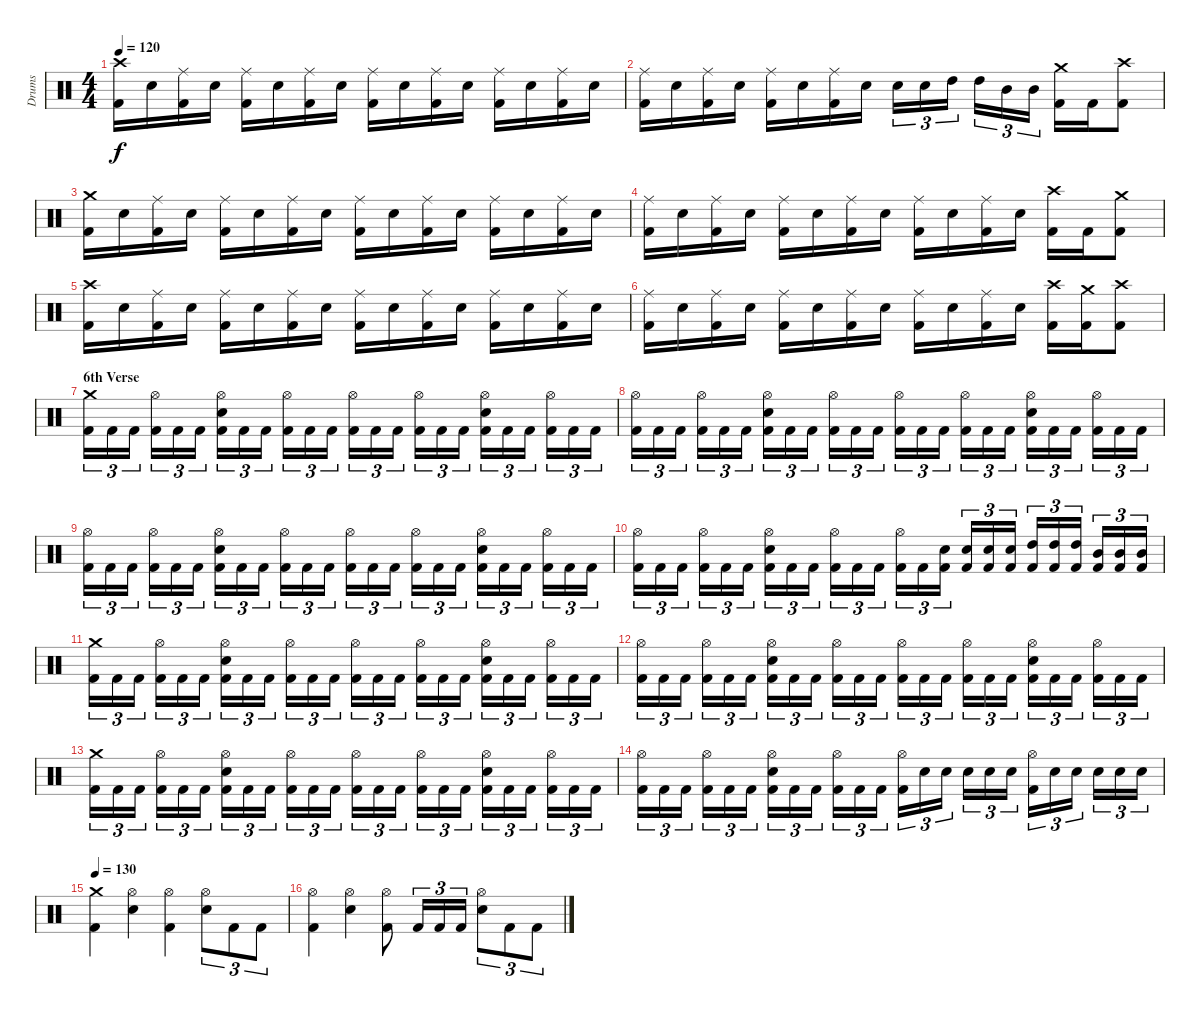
\track ("Drums" "Drums") {instrument percussion}
\staff {score}
\articulation defaults
\ts (4 4)
\tempo 120
\clef neutral
\ks c
("Kick (hit) 2" "Crash high (hit)").16{dy f} "Electric Snare (hit)".16 ("Kick (hit) 2" "Ride (middle)").16 "Electric Snare (hit)".16 ("Kick (hit) 2" "Ride (middle)").16 "Electric Snare (hit)".16 ("Kick (hit) 2" "Ride (middle)").16 "Electric Snare (hit)".16 ("Kick (hit) 2" "Ride (middle)").16 "Electric Snare (hit)".16 ("Kick (hit) 2" "Ride (middle)").16 "Electric Snare (hit)".16 ("Kick (hit) 2" "Ride (middle)").16 "Electric Snare (hit)".16 ("Kick (hit) 2" "Ride (middle)").16 "Electric Snare (hit)".16 |
("Kick (hit) 2" "Ride (middle)").16 "Electric Snare (hit)".16 ("Kick (hit) 2" "Ride (middle)").16 "Electric Snare (hit)".16 ("Kick (hit) 2" "Ride (middle)").16 "Electric Snare (hit)".16 ("Kick (hit) 2" "Ride (middle)").16 "Electric Snare (hit)".16 "Electric Snare (hit)".16{tu (3 2)} "Electric Snare (hit)".16{tu (3 2)} "High Tom (hit)".16{tu (3 2)} "High Tom (hit)".16{tu (3 2)} "Mid Tom (hit)".16{tu (3 2)} "Mid Tom (hit)".16{tu (3 2)} ("Kick (hit) 2" "Crash medium (hit)").16 "Kick (hit) 2".16 ("Kick (hit) 2" "Crash high (hit)").8 |
("Kick (hit) 2" "Crash medium (hit)").16 "Electric Snare (hit)".16 ("Kick (hit) 2" "Ride (middle)").16 "Electric Snare (hit)".16 ("Kick (hit) 2" "Ride (middle)").16 "Electric Snare (hit)".16 ("Kick (hit) 2" "Ride (middle)").16 "Electric Snare (hit)".16 ("Kick (hit) 2" "Ride (middle)").16 "Electric Snare (hit)".16 ("Kick (hit) 2" "Ride (middle)").16 "Electric Snare (hit)".16 ("Kick (hit) 2" "Ride (middle)").16 "Electric Snare (hit)".16 ("Kick (hit) 2" "Ride (middle)").16 "Electric Snare (hit)".16 |
("Kick (hit) 2" "Ride (middle)").16 "Electric Snare (hit)".16 ("Kick (hit) 2" "Ride (middle)").16 "Electric Snare (hit)".16 ("Kick (hit) 2" "Ride (middle)").16 "Electric Snare (hit)".16 ("Kick (hit) 2" "Ride (middle)").16 "Electric Snare (hit)".16 ("Kick (hit) 2" "Ride (middle)").16 "Electric Snare (hit)".16 ("Kick (hit) 2" "Ride (middle)").16 "Electric Snare (hit)".16 ("Kick (hit) 2" "Crash high (hit)").16 "Kick (hit) 2".16 ("Kick (hit) 2" "Crash medium (hit)").8 |
("Kick (hit) 2" "Crash high (hit)").16 "Electric Snare (hit)".16 ("Kick (hit) 2" "Ride (middle)").16 "Electric Snare (hit)".16 ("Kick (hit) 2" "Ride (middle)").16 "Electric Snare (hit)".16 ("Kick (hit) 2" "Ride (middle)").16 "Electric Snare (hit)".16 ("Kick (hit) 2" "Ride (middle)").16 "Electric Snare (hit)".16 ("Kick (hit) 2" "Ride (middle)").16 "Electric Snare (hit)".16 ("Kick (hit) 2" "Ride (middle)").16 "Electric Snare (hit)".16 ("Kick (hit) 2" "Ride (middle)").16 "Electric Snare (hit)".16 |
("Kick (hit) 2" "Ride (middle)").16 "Electric Snare (hit)".16 ("Kick (hit) 2" "Ride (middle)").16 "Electric Snare (hit)".16 ("Kick (hit) 2" "Ride (middle)").16 "Electric Snare (hit)".16 ("Kick (hit) 2" "Ride (middle)").16 "Electric Snare (hit)".16 ("Kick (hit) 2" "Ride (middle)").16 "Electric Snare (hit)".16 ("Kick (hit) 2" "Ride (middle)").16 "Electric Snare (hit)".16 ("Kick (hit) 2" "Crash high (hit)").16 ("Kick (hit) 2" "Crash medium (hit)").16 ("Kick (hit) 2" "Crash high (hit)").8 |
\section ("" "6th Verse")
("Kick (hit) 2" "Crash medium (hit)").16{tu (3 2)} "Kick (hit) 2".16{tu (3 2)} "Kick (hit) 2".16{tu (3 2)} ("Kick (hit) 2" "Hi-Hat (open)").16{tu (3 2)} "Kick (hit) 2".16{tu (3 2)} "Kick (hit) 2".16{tu (3 2)} ("Kick (hit) 2" "Electric Snare (hit)" "Hi-Hat (open)").16{tu (3 2)} "Kick (hit) 2".16{tu (3 2)} "Kick (hit) 2".16{tu (3 2)} ("Kick (hit) 2" "Hi-Hat (open)").16{tu (3 2)} "Kick (hit) 2".16{tu (3 2)} "Kick (hit) 2".16{tu (3 2)} ("Kick (hit) 2" "Hi-Hat (open)").16{tu (3 2)} "Kick (hit) 2".16{tu (3 2)} "Kick (hit) 2".16{tu (3 2)} ("Kick (hit) 2" "Hi-Hat (open)").16{tu (3 2)} "Kick (hit) 2".16{tu (3 2)} "Kick (hit) 2".16{tu (3 2)} ("Kick (hit) 2" "Electric Snare (hit)" "Hi-Hat (open)").16{tu (3 2)} "Kick (hit) 2".16{tu (3 2)} "Kick (hit) 2".16{tu (3 2)} ("Kick (hit) 2" "Hi-Hat (open)").16{tu (3 2)} "Kick (hit) 2".16{tu (3 2)} "Kick (hit) 2".16{tu (3 2)} |
("Kick (hit) 2" "Hi-Hat (open)").16{tu (3 2)} "Kick (hit) 2".16{tu (3 2)} "Kick (hit) 2".16{tu (3 2)} ("Kick (hit) 2" "Hi-Hat (open)").16{tu (3 2)} "Kick (hit) 2".16{tu (3 2)} "Kick (hit) 2".16{tu (3 2)} ("Kick (hit) 2" "Electric Snare (hit)" "Hi-Hat (open)").16{tu (3 2)} "Kick (hit) 2".16{tu (3 2)} "Kick (hit) 2".16{tu (3 2)} ("Kick (hit) 2" "Hi-Hat (open)").16{tu (3 2)} "Kick (hit) 2".16{tu (3 2)} "Kick (hit) 2".16{tu (3 2)} ("Kick (hit) 2" "Hi-Hat (open)").16{tu (3 2)} "Kick (hit) 2".16{tu (3 2)} "Kick (hit) 2".16{tu (3 2)} ("Kick (hit) 2" "Hi-Hat (open)").16{tu (3 2)} "Kick (hit) 2".16{tu (3 2)} "Kick (hit) 2".16{tu (3 2)} ("Kick (hit) 2" "Electric Snare (hit)" "Hi-Hat (open)").16{tu (3 2)} "Kick (hit) 2".16{tu (3 2)} "Kick (hit) 2".16{tu (3 2)} ("Kick (hit) 2" "Hi-Hat (open)").16{tu (3 2)} "Kick (hit) 2".16{tu (3 2)} "Kick (hit) 2".16{tu (3 2)} |
("Kick (hit) 2" "Hi-Hat (open)").16{tu (3 2)} "Kick (hit) 2".16{tu (3 2)} "Kick (hit) 2".16{tu (3 2)} ("Kick (hit) 2" "Hi-Hat (open)").16{tu (3 2)} "Kick (hit) 2".16{tu (3 2)} "Kick (hit) 2".16{tu (3 2)} ("Kick (hit) 2" "Electric Snare (hit)" "Hi-Hat (open)").16{tu (3 2)} "Kick (hit) 2".16{tu (3 2)} "Kick (hit) 2".16{tu (3 2)} ("Kick (hit) 2" "Hi-Hat (open)").16{tu (3 2)} "Kick (hit) 2".16{tu (3 2)} "Kick (hit) 2".16{tu (3 2)} ("Kick (hit) 2" "Hi-Hat (open)").16{tu (3 2)} "Kick (hit) 2".16{tu (3 2)} "Kick (hit) 2".16{tu (3 2)} ("Kick (hit) 2" "Hi-Hat (open)").16{tu (3 2)} "Kick (hit) 2".16{tu (3 2)} "Kick (hit) 2".16{tu (3 2)} ("Kick (hit) 2" "Electric Snare (hit)" "Hi-Hat (open)").16{tu (3 2)} "Kick (hit) 2".16{tu (3 2)} "Kick (hit) 2".16{tu (3 2)} ("Kick (hit) 2" "Hi-Hat (open)").16{tu (3 2)} "Kick (hit) 2".16{tu (3 2)} "Kick (hit) 2".16{tu (3 2)} |
("Kick (hit) 2" "Hi-Hat (open)").16{tu (3 2)} "Kick (hit) 2".16{tu (3 2)} "Kick (hit) 2".16{tu (3 2)} ("Kick (hit) 2" "Hi-Hat (open)").16{tu (3 2)} "Kick (hit) 2".16{tu (3 2)} "Kick (hit) 2".16{tu (3 2)} ("Kick (hit) 2" "Electric Snare (hit)" "Hi-Hat (open)").16{tu (3 2)} "Kick (hit) 2".16{tu (3 2)} "Kick (hit) 2".16{tu (3 2)} ("Kick (hit) 2" "Hi-Hat (open)").16{tu (3 2)} "Kick (hit) 2".16{tu (3 2)} "Kick (hit) 2".16{tu (3 2)} ("Kick (hit) 2" "Hi-Hat (open)").16{tu (3 2)} "Kick (hit) 2".16{tu (3 2)} ("Kick (hit) 2" "Electric Snare (hit)").16{tu (3 2)} ("Kick (hit) 2" "Electric Snare (hit)").16{tu (3 2)} ("Kick (hit) 2" "Electric Snare (hit)").16{tu (3 2)} ("Kick (hit) 2" "Electric Snare (hit)").16{tu (3 2)} ("Kick (hit) 2" "High Tom (hit)").16{tu (3 2)} ("Kick (hit) 2" "High Tom (hit)").16{tu (3 2)} ("Kick (hit) 2" "High Tom (hit)").16{tu (3 2)} ("Kick (hit) 2" "Mid Tom (hit)").16{tu (3 2)} ("Kick (hit) 2" "Mid Tom (hit)").16{tu (3 2)} ("Kick (hit) 2" "Mid Tom (hit)").16{tu (3 2)} |
("Kick (hit) 2" "Crash medium (hit)").16{tu (3 2)} "Kick (hit) 2".16{tu (3 2)} "Kick (hit) 2".16{tu (3 2)} ("Kick (hit) 2" "Hi-Hat (open)").16{tu (3 2)} "Kick (hit) 2".16{tu (3 2)} "Kick (hit) 2".16{tu (3 2)} ("Kick (hit) 2" "Electric Snare (hit)" "Hi-Hat (open)").16{tu (3 2)} "Kick (hit) 2".16{tu (3 2)} "Kick (hit) 2".16{tu (3 2)} ("Kick (hit) 2" "Hi-Hat (open)").16{tu (3 2)} "Kick (hit) 2".16{tu (3 2)} "Kick (hit) 2".16{tu (3 2)} ("Kick (hit) 2" "Hi-Hat (open)").16{tu (3 2)} "Kick (hit) 2".16{tu (3 2)} "Kick (hit) 2".16{tu (3 2)} ("Kick (hit) 2" "Hi-Hat (open)").16{tu (3 2)} "Kick (hit) 2".16{tu (3 2)} "Kick (hit) 2".16{tu (3 2)} ("Kick (hit) 2" "Electric Snare (hit)" "Hi-Hat (open)").16{tu (3 2)} "Kick (hit) 2".16{tu (3 2)} "Kick (hit) 2".16{tu (3 2)} ("Kick (hit) 2" "Hi-Hat (open)").16{tu (3 2)} "Kick (hit) 2".16{tu (3 2)} "Kick (hit) 2".16{tu (3 2)} |
("Kick (hit) 2" "Hi-Hat (open)").16{tu (3 2)} "Kick (hit) 2".16{tu (3 2)} "Kick (hit) 2".16{tu (3 2)} ("Kick (hit) 2" "Hi-Hat (open)").16{tu (3 2)} "Kick (hit) 2".16{tu (3 2)} "Kick (hit) 2".16{tu (3 2)} ("Kick (hit) 2" "Electric Snare (hit)" "Hi-Hat (open)").16{tu (3 2)} "Kick (hit) 2".16{tu (3 2)} "Kick (hit) 2".16{tu (3 2)} ("Kick (hit) 2" "Hi-Hat (open)").16{tu (3 2)} "Kick (hit) 2".16{tu (3 2)} "Kick (hit) 2".16{tu (3 2)} ("Kick (hit) 2" "Hi-Hat (open)").16{tu (3 2)} "Kick (hit) 2".16{tu (3 2)} "Kick (hit) 2".16{tu (3 2)} ("Kick (hit) 2" "Hi-Hat (open)").16{tu (3 2)} "Kick (hit) 2".16{tu (3 2)} "Kick (hit) 2".16{tu (3 2)} ("Kick (hit) 2" "Electric Snare (hit)" "Hi-Hat (open)").16{tu (3 2)} "Kick (hit) 2".16{tu (3 2)} "Kick (hit) 2".16{tu (3 2)} ("Kick (hit) 2" "Hi-Hat (open)").16{tu (3 2)} "Kick (hit) 2".16{tu (3 2)} "Kick (hit) 2".16{tu (3 2)} |
("Kick (hit) 2" "Crash medium (hit)").16{tu (3 2)} "Kick (hit) 2".16{tu (3 2)} "Kick (hit) 2".16{tu (3 2)} ("Kick (hit) 2" "Hi-Hat (open)").16{tu (3 2)} "Kick (hit) 2".16{tu (3 2)} "Kick (hit) 2".16{tu (3 2)} ("Kick (hit) 2" "Electric Snare (hit)" "Hi-Hat (open)").16{tu (3 2)} "Kick (hit) 2".16{tu (3 2)} "Kick (hit) 2".16{tu (3 2)} ("Kick (hit) 2" "Hi-Hat (open)").16{tu (3 2)} "Kick (hit) 2".16{tu (3 2)} "Kick (hit) 2".16{tu (3 2)} ("Kick (hit) 2" "Hi-Hat (open)").16{tu (3 2)} "Kick (hit) 2".16{tu (3 2)} "Kick (hit) 2".16{tu (3 2)} ("Kick (hit) 2" "Hi-Hat (open)").16{tu (3 2)} "Kick (hit) 2".16{tu (3 2)} "Kick (hit) 2".16{tu (3 2)} ("Kick (hit) 2" "Electric Snare (hit)" "Hi-Hat (open)").16{tu (3 2)} "Kick (hit) 2".16{tu (3 2)} "Kick (hit) 2".16{tu (3 2)} ("Kick (hit) 2" "Hi-Hat (open)").16{tu (3 2)} "Kick (hit) 2".16{tu (3 2)} "Kick (hit) 2".16{tu (3 2)} |
("Kick (hit) 2" "Hi-Hat (open)").16{tu (3 2)} "Kick (hit) 2".16{tu (3 2)} "Kick (hit) 2".16{tu (3 2)} ("Kick (hit) 2" "Hi-Hat (open)").16{tu (3 2)} "Kick (hit) 2".16{tu (3 2)} "Kick (hit) 2".16{tu (3 2)} ("Kick (hit) 2" "Electric Snare (hit)" "Hi-Hat (open)").16{tu (3 2)} "Kick (hit) 2".16{tu (3 2)} "Kick (hit) 2".16{tu (3 2)} ("Kick (hit) 2" "Hi-Hat (open)").16{tu (3 2)} "Kick (hit) 2".16{tu (3 2)} "Kick (hit) 2".16{tu (3 2)} ("Kick (hit) 2" "Hi-Hat (open)").16{tu (3 2)} "Electric Snare (hit)".16{tu (3 2)} "Electric Snare (hit)".16{tu (3 2)} "Electric Snare (hit)".16{tu (3 2)} "Electric Snare (hit)".16{tu (3 2)} "Electric Snare (hit)".16{tu (3 2)} ("Kick (hit) 2" "Hi-Hat (open)").16{tu (3 2)} "Electric Snare (hit)".16{tu (3 2)} "Electric Snare (hit)".16{tu (3 2)} "Electric Snare (hit)".16{tu (3 2)} "Electric Snare (hit)".16{tu (3 2)} "Electric Snare (hit)".16{tu (3 2)} |
\tempo 130
("Kick (hit) 2" "Crash medium (hit)").4 ("Electric Snare (hit)" "Hi-Hat (open)").4 ("Kick (hit) 2" "Hi-Hat (open)").4 ("Electric Snare (hit)" "Hi-Hat (open)").8{tu (3 2)} "Kick (hit) 2".8{tu (3 2)} "Kick (hit) 2".8{tu (3 2)} |
("Kick (hit) 2" "Hi-Hat (open)").4 ("Electric Snare (hit)" "Hi-Hat (open)").4 ("Kick (hit) 2" "Hi-Hat (open)").8 "Kick (hit) 2".16{tu (3 2)} "Kick (hit) 2".16{tu (3 2)} "Kick (hit) 2".16{tu (3 2)} ("Electric Snare (hit)" "Hi-Hat (open)").8{tu (3 2)} "Kick (hit) 2".8{tu (3 2)} "Kick (hit) 2".8{tu (3 2)}
